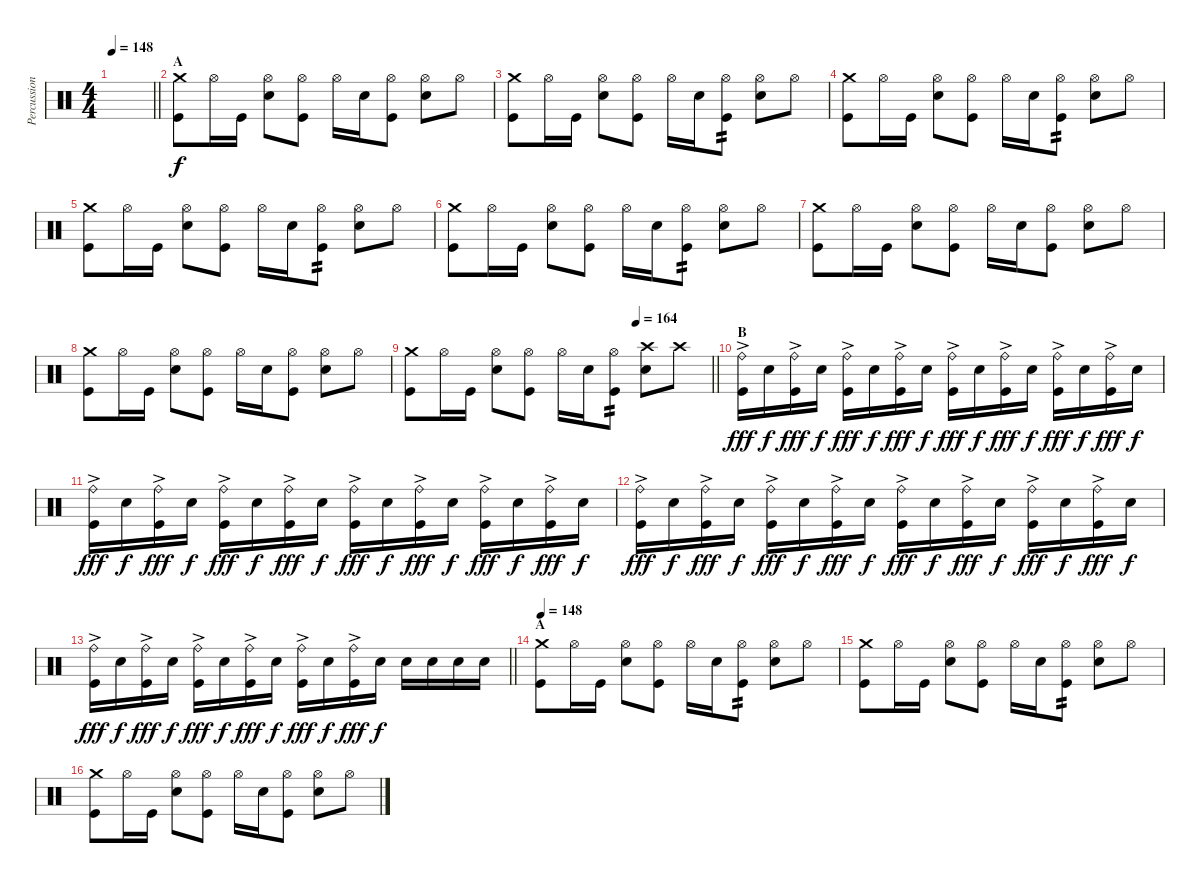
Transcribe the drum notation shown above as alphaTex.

\track ("Percussion" "Percussion") {instrument percussion}
\staff {score}
\articulation defaults
\ts (4 4)
\tempo 148
\clef neutral
\barLineRight lightlight
\ks c
|
\section ("" "A")
("Kick (hit)" "Crash medium (hit)").8 "Hi-Hat (open)".16 "Kick (hit)".16 ("Snare (hit) 2" "Hi-Hat (open)").8 ("Kick (hit)" "Hi-Hat (open)").8 "Hi-Hat (open)".16 "Snare (hit) 2".16 ("Kick (hit)" "Hi-Hat (open)").8 ("Snare (hit) 2" "Hi-Hat (open)").8 "Hi-Hat (open)".8 |
("Kick (hit)" "Crash medium (hit)").8 "Hi-Hat (open)".16 "Kick (hit)".16 ("Snare (hit) 2" "Hi-Hat (open)").8 ("Kick (hit)" "Hi-Hat (open)").8 "Hi-Hat (open)".16 "Snare (hit) 2".16 ("Kick (hit)" "Hi-Hat (open)").8{tp 2} ("Snare (hit) 2" "Hi-Hat (open)").8 "Hi-Hat (open)".8 |
("Kick (hit)" "Crash medium (hit)").8 "Hi-Hat (open)".16 "Kick (hit)".16 ("Snare (hit) 2" "Hi-Hat (open)").8 ("Kick (hit)" "Hi-Hat (open)").8 "Hi-Hat (open)".16 "Snare (hit) 2".16 ("Kick (hit)" "Hi-Hat (open)").8{tp 2} ("Snare (hit) 2" "Hi-Hat (open)").8 "Hi-Hat (open)".8 |
("Kick (hit)" "Crash medium (hit)").8 "Hi-Hat (open)".16 "Kick (hit)".16 ("Snare (hit) 2" "Hi-Hat (open)").8 ("Kick (hit)" "Hi-Hat (open)").8 "Hi-Hat (open)".16 "Snare (hit) 2".16 ("Kick (hit)" "Hi-Hat (open)").8{tp 2} ("Snare (hit) 2" "Hi-Hat (open)").8 "Hi-Hat (open)".8 |
("Kick (hit)" "Crash medium (hit)").8 "Hi-Hat (open)".16 "Kick (hit)".16 ("Snare (hit) 2" "Hi-Hat (open)").8 ("Kick (hit)" "Hi-Hat (open)").8 "Hi-Hat (open)".16 "Snare (hit) 2".16 ("Kick (hit)" "Hi-Hat (open)").8{tp 2} ("Snare (hit) 2" "Hi-Hat (open)").8 "Hi-Hat (open)".8 |
("Kick (hit)" "Crash medium (hit)").8 "Hi-Hat (open)".16 "Kick (hit)".16 ("Snare (hit) 2" "Hi-Hat (open)").8 ("Kick (hit)" "Hi-Hat (open)").8 "Hi-Hat (open)".16 "Snare (hit) 2".16 ("Kick (hit)" "Hi-Hat (open)").8 ("Snare (hit) 2" "Hi-Hat (open)").8 "Hi-Hat (open)".8 |
("Kick (hit)" "Crash medium (hit)").8 "Hi-Hat (open)".16 "Kick (hit)".16 ("Snare (hit) 2" "Hi-Hat (open)").8 ("Kick (hit)" "Hi-Hat (open)").8 "Hi-Hat (open)".16 "Snare (hit) 2".16 ("Kick (hit)" "Hi-Hat (open)").8 ("Snare (hit) 2" "Hi-Hat (open)").8 "Hi-Hat (open)".8 |
\tempo (164 0.75)
\barLineRight lightlight
("Kick (hit)" "Crash medium (hit)").8 "Hi-Hat (open)".16 "Kick (hit)".16 ("Snare (hit) 2" "Hi-Hat (open)").8 ("Kick (hit)" "Hi-Hat (open)").8 "Hi-Hat (open)".16 "Snare (hit) 2".16 ("Kick (hit)" "Hi-Hat (open)").8{tp 2} ("Snare (hit) 2" "Crash high (hit)").8 "Crash high (hit)".8 |
\section ("" "B")
("Kick (hit)" "Ride (bell)"{ac}).16{dy fff} "Snare (hit) 2".16{dy f} ("Kick (hit)" "Ride (bell)"{ac}).16{dy fff} "Snare (hit) 2".16{dy f} ("Kick (hit)" "Ride (bell)"{ac}).16{dy fff} "Snare (hit) 2".16{dy f} ("Kick (hit)" "Ride (bell)"{ac}).16{dy fff} "Snare (hit) 2".16{dy f} ("Kick (hit)" "Ride (bell)"{ac}).16{dy fff} "Snare (hit) 2".16{dy f} ("Kick (hit)" "Ride (bell)"{ac}).16{dy fff} "Snare (hit) 2".16{dy f} ("Kick (hit)" "Ride (bell)"{ac}).16{dy fff} "Snare (hit) 2".16{dy f} ("Kick (hit)" "Ride (bell)"{ac}).16{dy fff} "Snare (hit) 2".16{dy f} |
("Kick (hit)" "Ride (bell)"{ac}).16{dy fff} "Snare (hit) 2".16{dy f} ("Kick (hit)" "Ride (bell)"{ac}).16{dy fff} "Snare (hit) 2".16{dy f} ("Kick (hit)" "Ride (bell)"{ac}).16{dy fff} "Snare (hit) 2".16{dy f} ("Kick (hit)" "Ride (bell)"{ac}).16{dy fff} "Snare (hit) 2".16{dy f} ("Kick (hit)" "Ride (bell)"{ac}).16{dy fff} "Snare (hit) 2".16{dy f} ("Kick (hit)" "Ride (bell)"{ac}).16{dy fff} "Snare (hit) 2".16{dy f} ("Kick (hit)" "Ride (bell)"{ac}).16{dy fff} "Snare (hit) 2".16{dy f} ("Kick (hit)" "Ride (bell)"{ac}).16{dy fff} "Snare (hit) 2".16{dy f} |
("Kick (hit)" "Ride (bell)"{ac}).16{dy fff} "Snare (hit) 2".16{dy f} ("Kick (hit)" "Ride (bell)"{ac}).16{dy fff} "Snare (hit) 2".16{dy f} ("Kick (hit)" "Ride (bell)"{ac}).16{dy fff} "Snare (hit) 2".16{dy f} ("Kick (hit)" "Ride (bell)"{ac}).16{dy fff} "Snare (hit) 2".16{dy f} ("Kick (hit)" "Ride (bell)"{ac}).16{dy fff} "Snare (hit) 2".16{dy f} ("Kick (hit)" "Ride (bell)"{ac}).16{dy fff} "Snare (hit) 2".16{dy f} ("Kick (hit)" "Ride (bell)"{ac}).16{dy fff} "Snare (hit) 2".16{dy f} ("Kick (hit)" "Ride (bell)"{ac}).16{dy fff} "Snare (hit) 2".16{dy f} |
\barLineRight lightlight
("Kick (hit)" "Ride (bell)"{ac}).16{dy fff} "Snare (hit) 2".16{dy f} ("Kick (hit)" "Ride (bell)"{ac}).16{dy fff} "Snare (hit) 2".16{dy f} ("Kick (hit)" "Ride (bell)"{ac}).16{dy fff} "Snare (hit) 2".16{dy f} ("Kick (hit)" "Ride (bell)"{ac}).16{dy fff} "Snare (hit) 2".16{dy f} ("Kick (hit)" "Ride (bell)"{ac}).16{dy fff} "Snare (hit) 2".16{dy f} ("Kick (hit)" "Ride (bell)"{ac}).16{dy fff} "Snare (hit) 2".16{dy f} "Snare (hit) 2".16 "Snare (hit) 2".16 "Snare (hit) 2".16 "Snare (hit) 2".16 |
\section ("" "A")
\tempo 148
("Kick (hit)" "Crash medium (hit)").8 "Hi-Hat (open)".16 "Kick (hit)".16 ("Snare (hit) 2" "Hi-Hat (open)").8 ("Kick (hit)" "Hi-Hat (open)").8 "Hi-Hat (open)".16 "Snare (hit) 2".16 ("Kick (hit)" "Hi-Hat (open)").8{tp 2} ("Snare (hit) 2" "Hi-Hat (open)").8 "Hi-Hat (open)".8 |
("Kick (hit)" "Crash medium (hit)").8 "Hi-Hat (open)".16 "Kick (hit)".16 ("Snare (hit) 2" "Hi-Hat (open)").8 ("Kick (hit)" "Hi-Hat (open)").8 "Hi-Hat (open)".16 "Snare (hit) 2".16 ("Kick (hit)" "Hi-Hat (open)").8{tp 2} ("Snare (hit) 2" "Hi-Hat (open)").8 "Hi-Hat (open)".8 |
("Kick (hit)" "Crash medium (hit)").8 "Hi-Hat (open)".16 "Kick (hit)".16 ("Snare (hit) 2" "Hi-Hat (open)").8 ("Kick (hit)" "Hi-Hat (open)").8 "Hi-Hat (open)".16 "Snare (hit) 2".16 ("Kick (hit)" "Hi-Hat (open)").8 ("Snare (hit) 2" "Hi-Hat (open)").8 "Hi-Hat (open)".8
